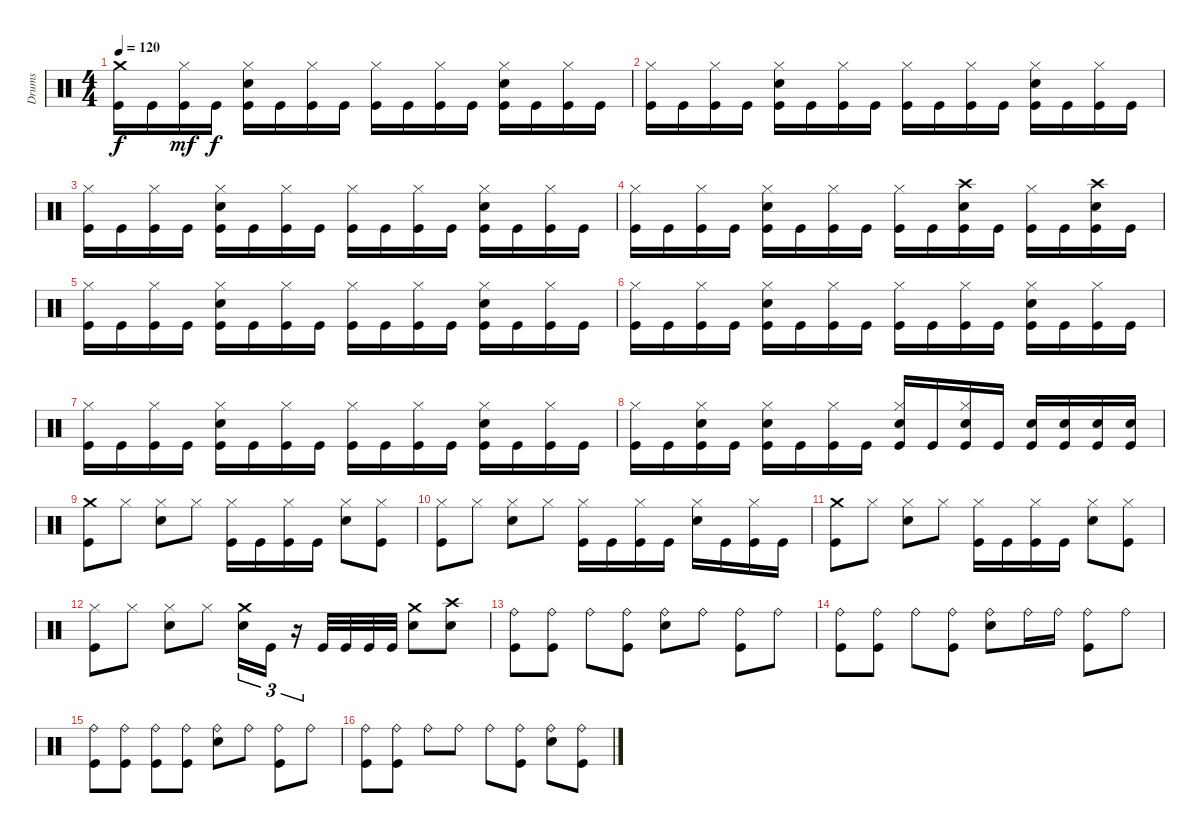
\track ("Drums" "Drums") {instrument percussion}
\staff {score}
\articulation defaults
\ts (4 4)
\tempo 120
\clef neutral
\ks c
("Kick (hit)" "Crash medium (hit)").16{dy f} "Kick (hit)".16 ("Kick (hit)" "Hi-Hat (closed)").16{dy mf} "Kick (hit)".16{dy f} ("Kick (hit)" "Electric Snare (hit)" "Hi-Hat (closed)").16 "Kick (hit)".16 ("Kick (hit)" "Hi-Hat (closed)").16 "Kick (hit)".16 ("Kick (hit)" "Hi-Hat (closed)").16 "Kick (hit)".16 ("Kick (hit)" "Hi-Hat (closed)").16 "Kick (hit)".16 ("Kick (hit)" "Electric Snare (hit)" "Hi-Hat (closed)").16 "Kick (hit)".16 ("Kick (hit)" "Hi-Hat (closed)").16 "Kick (hit)".16 |
("Kick (hit)" "Hi-Hat (closed)").16 "Kick (hit)".16 ("Kick (hit)" "Hi-Hat (closed)").16 "Kick (hit)".16 ("Kick (hit)" "Electric Snare (hit)" "Hi-Hat (closed)").16 "Kick (hit)".16 ("Kick (hit)" "Hi-Hat (closed)").16 "Kick (hit)".16 ("Kick (hit)" "Hi-Hat (closed)").16 "Kick (hit)".16 ("Kick (hit)" "Hi-Hat (closed)").16 "Kick (hit)".16 ("Kick (hit)" "Electric Snare (hit)" "Hi-Hat (closed)").16 "Kick (hit)".16 ("Kick (hit)" "Hi-Hat (closed)").16 "Kick (hit)".16 |
("Kick (hit)" "Hi-Hat (closed)").16 "Kick (hit)".16 ("Kick (hit)" "Hi-Hat (closed)").16 "Kick (hit)".16 ("Kick (hit)" "Electric Snare (hit)" "Hi-Hat (closed)").16 "Kick (hit)".16 ("Kick (hit)" "Hi-Hat (closed)").16 "Kick (hit)".16 ("Kick (hit)" "Hi-Hat (closed)").16 "Kick (hit)".16 ("Kick (hit)" "Hi-Hat (closed)").16 "Kick (hit)".16 ("Kick (hit)" "Electric Snare (hit)" "Hi-Hat (closed)").16 "Kick (hit)".16 ("Kick (hit)" "Hi-Hat (closed)").16 "Kick (hit)".16 |
("Kick (hit)" "Hi-Hat (closed)").16 "Kick (hit)".16 ("Kick (hit)" "Hi-Hat (closed)").16 "Kick (hit)".16 ("Kick (hit)" "Electric Snare (hit)" "Hi-Hat (closed)").16 "Kick (hit)".16 ("Kick (hit)" "Hi-Hat (closed)").16 "Kick (hit)".16 ("Kick (hit)" "Hi-Hat (closed)").16 "Kick (hit)".16 ("Kick (hit)" "Electric Snare (hit)" "Crash high (hit)").16 "Kick (hit)".16 ("Kick (hit)" "Hi-Hat (closed)").16 "Kick (hit)".16 ("Kick (hit)" "Electric Snare (hit)" "Crash high (hit)").16 "Kick (hit)".16 |
("Kick (hit)" "Hi-Hat (closed)").16 "Kick (hit)".16 ("Kick (hit)" "Hi-Hat (closed)").16 "Kick (hit)".16 ("Kick (hit)" "Electric Snare (hit)" "Hi-Hat (closed)").16 "Kick (hit)".16 ("Kick (hit)" "Hi-Hat (closed)").16 "Kick (hit)".16 ("Kick (hit)" "Hi-Hat (closed)").16 "Kick (hit)".16 ("Kick (hit)" "Hi-Hat (closed)").16 "Kick (hit)".16 ("Kick (hit)" "Electric Snare (hit)" "Hi-Hat (closed)").16 "Kick (hit)".16 ("Kick (hit)" "Hi-Hat (closed)").16 "Kick (hit)".16 |
("Kick (hit)" "Hi-Hat (closed)").16 "Kick (hit)".16 ("Kick (hit)" "Hi-Hat (closed)").16 "Kick (hit)".16 ("Kick (hit)" "Electric Snare (hit)" "Hi-Hat (closed)").16 "Kick (hit)".16 ("Kick (hit)" "Hi-Hat (closed)").16 "Kick (hit)".16 ("Kick (hit)" "Hi-Hat (closed)").16 "Kick (hit)".16 ("Kick (hit)" "Hi-Hat (closed)").16 "Kick (hit)".16 ("Kick (hit)" "Electric Snare (hit)" "Hi-Hat (closed)").16 "Kick (hit)".16 ("Kick (hit)" "Hi-Hat (closed)").16 "Kick (hit)".16 |
("Kick (hit)" "Hi-Hat (closed)").16 "Kick (hit)".16 ("Kick (hit)" "Hi-Hat (closed)").16 "Kick (hit)".16 ("Kick (hit)" "Electric Snare (hit)" "Hi-Hat (closed)").16 "Kick (hit)".16 ("Kick (hit)" "Hi-Hat (closed)").16 "Kick (hit)".16 ("Kick (hit)" "Hi-Hat (closed)").16 "Kick (hit)".16 ("Kick (hit)" "Hi-Hat (closed)").16 "Kick (hit)".16 ("Kick (hit)" "Electric Snare (hit)" "Hi-Hat (closed)").16 "Kick (hit)".16 ("Kick (hit)" "Hi-Hat (closed)").16 "Kick (hit)".16 |
("Kick (hit)" "Hi-Hat (closed)").16 "Kick (hit)".16 ("Kick (hit)" "Electric Snare (hit)" "Hi-Hat (closed)").16 "Kick (hit)".16 ("Kick (hit)" "Electric Snare (hit)" "Hi-Hat (closed)").16 "Kick (hit)".16 ("Kick (hit)" "Hi-Hat (closed)").16 "Kick (hit)".16 ("Kick (hit)" "Electric Snare (hit)" "Hi-Hat (closed)").16 "Kick (hit)".16 ("Kick (hit)" "Electric Snare (hit)" "Hi-Hat (closed)").16 "Kick (hit)".16 ("Kick (hit)" "Electric Snare (hit)").16 ("Kick (hit)" "Electric Snare (hit)").16 ("Kick (hit)" "Electric Snare (hit)").16 ("Kick (hit)" "Electric Snare (hit)").16 |
("Kick (hit)" "Crash medium (hit)").8 "Hi-Hat (closed)".8 ("Electric Snare (hit)" "Hi-Hat (closed)").8 "Hi-Hat (closed)".8 ("Kick (hit)" "Hi-Hat (closed)").16 "Kick (hit)".16 ("Kick (hit)" "Hi-Hat (closed)").16 "Kick (hit)".16 ("Electric Snare (hit)" "Hi-Hat (closed)").8 ("Kick (hit)" "Hi-Hat (closed)").8 |
("Kick (hit)" "Hi-Hat (closed)").8 "Hi-Hat (closed)".8 ("Electric Snare (hit)" "Hi-Hat (closed)").8 "Hi-Hat (closed)".8 ("Kick (hit)" "Hi-Hat (closed)").16 "Kick (hit)".16 ("Kick (hit)" "Hi-Hat (closed)").16 "Kick (hit)".16 ("Electric Snare (hit)" "Hi-Hat (closed)").16 "Kick (hit)".16 ("Kick (hit)" "Hi-Hat (closed)").16 "Kick (hit)".16 |
("Kick (hit)" "Crash medium (hit)").8 "Hi-Hat (closed)".8 ("Electric Snare (hit)" "Hi-Hat (closed)").8 "Hi-Hat (closed)".8 ("Kick (hit)" "Hi-Hat (closed)").16 "Kick (hit)".16 ("Kick (hit)" "Hi-Hat (closed)").16 "Kick (hit)".16 ("Electric Snare (hit)" "Hi-Hat (closed)").8 ("Kick (hit)" "Hi-Hat (closed)").8 |
("Kick (hit)" "Hi-Hat (closed)").8 "Hi-Hat (closed)".8 ("Electric Snare (hit)" "Hi-Hat (closed)").8 "Hi-Hat (closed)".8 ("Electric Snare (hit)" "Crash medium (hit)").16{tu (3 2)} "Kick (hit)".16{tu (3 2)} r.16{tu (3 2)} "Kick (hit)".32 "Kick (hit)".32 "Kick (hit)".32 "Kick (hit)".32 ("Electric Snare (hit)" "Crash medium (hit)").8 ("Electric Snare (hit)" "Crash high (hit)").8 |
("Kick (hit)" "Ride (bell)").8 ("Kick (hit)" "Ride (bell)").8 "Ride (bell)".8 ("Kick (hit)" "Ride (bell)").8 ("Electric Snare (hit)" "Ride (bell)").8 "Ride (bell)".8 ("Kick (hit)" "Ride (bell)").8 "Ride (bell)".8 |
("Kick (hit)" "Ride (bell)").8 ("Kick (hit)" "Ride (bell)").8 "Ride (bell)".8 ("Kick (hit)" "Ride (bell)").8 ("Electric Snare (hit)" "Ride (bell)").8 "Ride (bell)".16 "Ride (bell)".16 ("Kick (hit)" "Ride (bell)").8 "Ride (bell)".8 |
("Kick (hit)" "Ride (bell)").8 ("Kick (hit)" "Ride (bell)").8 ("Kick (hit)" "Ride (bell)").8 ("Kick (hit)" "Ride (bell)").8 ("Electric Snare (hit)" "Ride (bell)").8 "Ride (bell)".8 ("Kick (hit)" "Ride (bell)").8 "Ride (bell)".8 |
("Kick (hit)" "Ride (bell)").8 ("Kick (hit)" "Ride (bell)").8 "Ride (bell)".8 "Ride (bell)".8 "Ride (bell)".8 ("Kick (hit)" "Ride (bell)").8 ("Electric Snare (hit)" "Ride (bell)").8 ("Kick (hit)" "Ride (bell)").8
